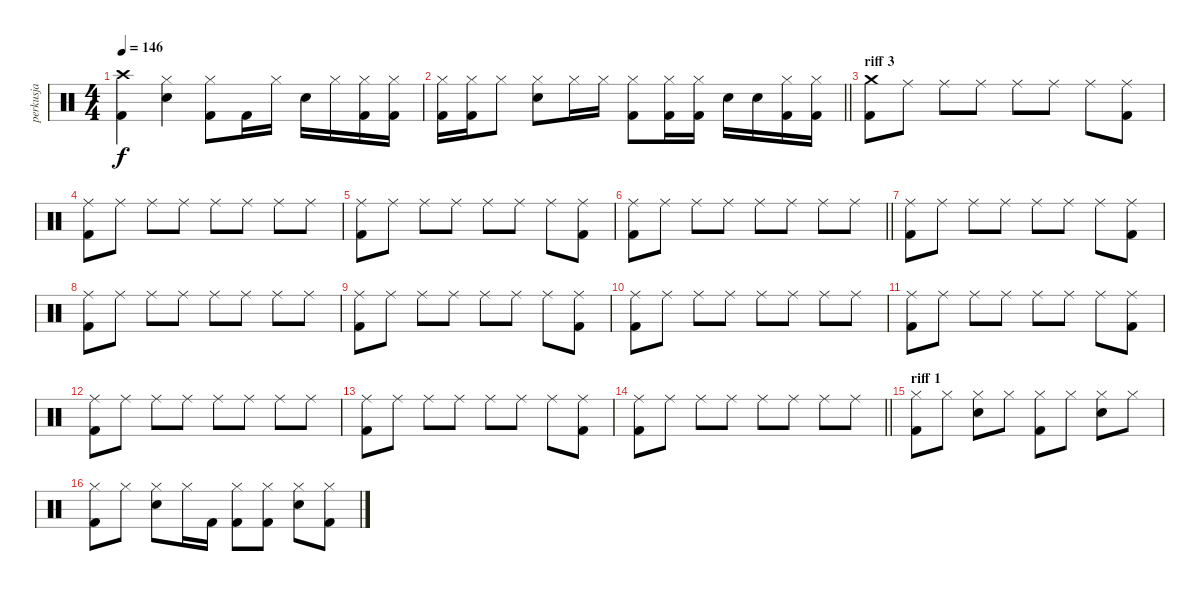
\track ("perkusja" "perkusja") {instrument percussion}
\staff {score}
\articulation defaults
\ts (4 4)
\tempo 146
\clef neutral
\ks c
("Crash high (hit)" "Kick (hit) 2").4{dy f} ("Hi-Hat (closed)" "Electric Snare (hit)").4 ("Hi-Hat (closed)" "Kick (hit) 2").8 "Kick (hit) 2".16 "Hi-Hat (closed)".16 "Electric Snare (hit)".16 "Hi-Hat (closed)".16 ("Hi-Hat (closed)" "Kick (hit) 2").16 ("Hi-Hat (closed)" "Kick (hit) 2").16 |
\barLineRight lightlight
("Hi-Hat (closed)" "Kick (hit) 2").16 ("Hi-Hat (closed)" "Kick (hit) 2").16 "Hi-Hat (closed)".8 ("Hi-Hat (closed)" "Electric Snare (hit)").8 "Hi-Hat (closed)".16 "Hi-Hat (closed)".16 ("Hi-Hat (closed)" "Kick (hit) 2").8 ("Hi-Hat (closed)" "Kick (hit) 2").16 ("Hi-Hat (closed)" "Kick (hit) 2").16 "Electric Snare (hit)".16 "Electric Snare (hit)".16 ("Hi-Hat (closed)" "Kick (hit) 2").16 ("Hi-Hat (closed)" "Kick (hit) 2").16 |
\section ("" "riff 3")
("Crash medium (hit)" "Kick (hit) 2").8 "Ride (middle)".8 "Ride (middle)".8 "Ride (middle)".8 "Ride (middle)".8 "Ride (middle)".8 "Ride (middle)".8 ("Ride (middle)" "Kick (hit) 2").8 |
("Ride (middle)" "Kick (hit) 2").8 "Ride (middle)".8 "Ride (middle)".8 "Ride (middle)".8 "Ride (middle)".8 "Ride (middle)".8 "Ride (middle)".8 "Ride (middle)".8 |
("Ride (middle)" "Kick (hit) 2").8 "Ride (middle)".8 "Ride (middle)".8 "Ride (middle)".8 "Ride (middle)".8 "Ride (middle)".8 "Ride (middle)".8 ("Ride (middle)" "Kick (hit) 2").8 |
\barLineRight lightlight
("Ride (middle)" "Kick (hit) 2").8 "Ride (middle)".8 "Ride (middle)".8 "Ride (middle)".8 "Ride (middle)".8 "Ride (middle)".8 "Ride (middle)".8 "Ride (middle)".8 |
("Ride (middle)" "Kick (hit) 2").8 "Ride (middle)".8 "Ride (middle)".8 "Ride (middle)".8 "Ride (middle)".8 "Ride (middle)".8 "Ride (middle)".8 ("Ride (middle)" "Kick (hit) 2").8 |
("Ride (middle)" "Kick (hit) 2").8 "Ride (middle)".8 "Ride (middle)".8 "Ride (middle)".8 "Ride (middle)".8 "Ride (middle)".8 "Ride (middle)".8 "Ride (middle)".8 |
("Ride (middle)" "Kick (hit) 2").8 "Ride (middle)".8 "Ride (middle)".8 "Ride (middle)".8 "Ride (middle)".8 "Ride (middle)".8 "Ride (middle)".8 ("Ride (middle)" "Kick (hit) 2").8 |
("Ride (middle)" "Kick (hit) 2").8 "Ride (middle)".8 "Ride (middle)".8 "Ride (middle)".8 "Ride (middle)".8 "Ride (middle)".8 "Ride (middle)".8 "Ride (middle)".8 |
("Ride (middle)" "Kick (hit) 2").8 "Ride (middle)".8 "Ride (middle)".8 "Ride (middle)".8 "Ride (middle)".8 "Ride (middle)".8 "Ride (middle)".8 ("Ride (middle)" "Kick (hit) 2").8 |
("Ride (middle)" "Kick (hit) 2").8 "Ride (middle)".8 "Ride (middle)".8 "Ride (middle)".8 "Ride (middle)".8 "Ride (middle)".8 "Ride (middle)".8 "Ride (middle)".8 |
("Ride (middle)" "Kick (hit) 2").8 "Ride (middle)".8 "Ride (middle)".8 "Ride (middle)".8 "Ride (middle)".8 "Ride (middle)".8 "Ride (middle)".8 ("Ride (middle)" "Kick (hit) 2").8 |
\barLineRight lightlight
("Ride (middle)" "Kick (hit) 2").8 "Ride (middle)".8 "Ride (middle)".8 "Ride (middle)".8 "Ride (middle)".8 "Ride (middle)".8 "Ride (middle)".8 "Ride (middle)".8 |
\section ("" "riff 1")
("Hi-Hat (closed)" "Kick (hit) 2").8 "Hi-Hat (closed)".8 ("Hi-Hat (closed)" "Electric Snare (hit)").8 "Hi-Hat (closed)".8 ("Hi-Hat (closed)" "Kick (hit) 2").8 "Hi-Hat (closed)".8 ("Hi-Hat (closed)" "Electric Snare (hit)").8 "Hi-Hat (closed)".8 |
("Hi-Hat (closed)" "Kick (hit) 2").8 "Hi-Hat (closed)".8 ("Hi-Hat (closed)" "Electric Snare (hit)").8 "Hi-Hat (closed)".16 "Kick (hit) 2".16 ("Hi-Hat (closed)" "Kick (hit) 2").8 ("Hi-Hat (closed)" "Kick (hit) 2").8 ("Hi-Hat (closed)" "Electric Snare (hit)").8 ("Hi-Hat (closed)" "Kick (hit) 2").8
